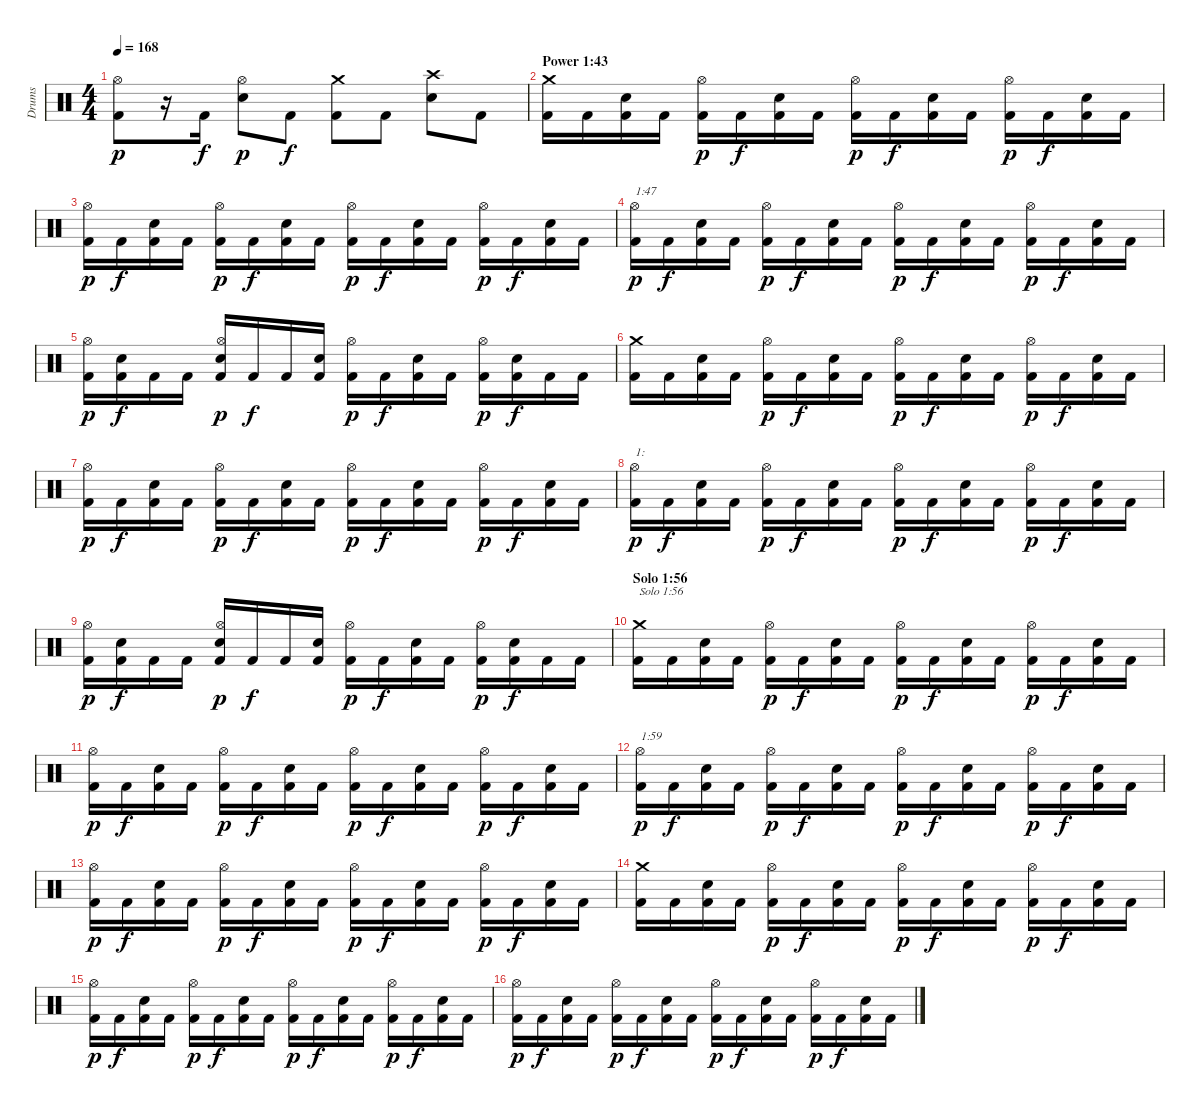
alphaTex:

\track ("Drums" "Drums") {instrument percussion}
\staff {score}
\articulation defaults
\ts (4 4)
\tempo 168
\clef neutral
\ks c
("Kick (hit) 2" "Hi-Hat (open)").8{dy p} r.16 "Kick (hit) 2".16{dy f} ("Electric Snare (hit)" "Hi-Hat (open)").8{dy p} "Kick (hit) 2".8{dy f} ("Kick (hit) 2" "Crash medium (hit)").8 "Kick (hit) 2".8 ("Electric Snare (hit)" "Crash high (hit)").8 "Kick (hit) 2".8 |
\section ("" "Power 1:43")
("Kick (hit) 2" "Crash medium (hit)").16 "Kick (hit) 2".16 ("Kick (hit) 2" "Electric Snare (hit)").16 "Kick (hit) 2".16 ("Kick (hit) 2" "Hi-Hat (open)").16{dy p} "Kick (hit) 2".16{dy f} ("Kick (hit) 2" "Electric Snare (hit)").16 "Kick (hit) 2".16 ("Kick (hit) 2" "Hi-Hat (open)").16{dy p} "Kick (hit) 2".16{dy f} ("Kick (hit) 2" "Electric Snare (hit)").16 "Kick (hit) 2".16 ("Kick (hit) 2" "Hi-Hat (open)").16{dy p} "Kick (hit) 2".16{dy f} ("Kick (hit) 2" "Electric Snare (hit)").16 "Kick (hit) 2".16 |
("Kick (hit) 2" "Hi-Hat (open)").16{dy p} "Kick (hit) 2".16{dy f} ("Kick (hit) 2" "Electric Snare (hit)").16 "Kick (hit) 2".16 ("Kick (hit) 2" "Hi-Hat (open)").16{dy p} "Kick (hit) 2".16{dy f} ("Kick (hit) 2" "Electric Snare (hit)").16 "Kick (hit) 2".16 ("Kick (hit) 2" "Hi-Hat (open)").16{dy p} "Kick (hit) 2".16{dy f} ("Kick (hit) 2" "Electric Snare (hit)").16 "Kick (hit) 2".16 ("Kick (hit) 2" "Hi-Hat (open)").16{dy p} "Kick (hit) 2".16{dy f} ("Kick (hit) 2" "Electric Snare (hit)").16 "Kick (hit) 2".16 |
("Kick (hit) 2" "Hi-Hat (open)").16{txt "1:47" dy p} "Kick (hit) 2".16{dy f} ("Kick (hit) 2" "Electric Snare (hit)").16 "Kick (hit) 2".16 ("Kick (hit) 2" "Hi-Hat (open)").16{dy p} "Kick (hit) 2".16{dy f} ("Kick (hit) 2" "Electric Snare (hit)").16 "Kick (hit) 2".16 ("Kick (hit) 2" "Hi-Hat (open)").16{dy p} "Kick (hit) 2".16{dy f} ("Kick (hit) 2" "Electric Snare (hit)").16 "Kick (hit) 2".16 ("Kick (hit) 2" "Hi-Hat (open)").16{dy p} "Kick (hit) 2".16{dy f} ("Kick (hit) 2" "Electric Snare (hit)").16 "Kick (hit) 2".16 |
("Kick (hit) 2" "Hi-Hat (open)").16{dy p} ("Kick (hit) 2" "Electric Snare (hit)").16{dy f} "Kick (hit) 2".16 "Kick (hit) 2".16 ("Kick (hit) 2" "Electric Snare (hit)" "Hi-Hat (open)").16{dy p} "Kick (hit) 2".16{dy f} "Kick (hit) 2".16 ("Kick (hit) 2" "Electric Snare (hit)").16 ("Kick (hit) 2" "Hi-Hat (open)").16{dy p} "Kick (hit) 2".16{dy f} ("Kick (hit) 2" "Electric Snare (hit)").16 "Kick (hit) 2".16 ("Kick (hit) 2" "Hi-Hat (open)").16{dy p} ("Kick (hit) 2" "Electric Snare (hit)").16{dy f} "Kick (hit) 2".16 "Kick (hit) 2".16 |
("Kick (hit) 2" "Crash medium (hit)").16 "Kick (hit) 2".16 ("Kick (hit) 2" "Electric Snare (hit)").16 "Kick (hit) 2".16 ("Kick (hit) 2" "Hi-Hat (open)").16{dy p} "Kick (hit) 2".16{dy f} ("Kick (hit) 2" "Electric Snare (hit)").16 "Kick (hit) 2".16 ("Kick (hit) 2" "Hi-Hat (open)").16{dy p} "Kick (hit) 2".16{dy f} ("Kick (hit) 2" "Electric Snare (hit)").16 "Kick (hit) 2".16 ("Kick (hit) 2" "Hi-Hat (open)").16{dy p} "Kick (hit) 2".16{dy f} ("Kick (hit) 2" "Electric Snare (hit)").16 "Kick (hit) 2".16 |
("Kick (hit) 2" "Hi-Hat (open)").16{dy p} "Kick (hit) 2".16{dy f} ("Kick (hit) 2" "Electric Snare (hit)").16 "Kick (hit) 2".16 ("Kick (hit) 2" "Hi-Hat (open)").16{dy p} "Kick (hit) 2".16{dy f} ("Kick (hit) 2" "Electric Snare (hit)").16 "Kick (hit) 2".16 ("Kick (hit) 2" "Hi-Hat (open)").16{dy p} "Kick (hit) 2".16{dy f} ("Kick (hit) 2" "Electric Snare (hit)").16 "Kick (hit) 2".16 ("Kick (hit) 2" "Hi-Hat (open)").16{dy p} "Kick (hit) 2".16{dy f} ("Kick (hit) 2" "Electric Snare (hit)").16 "Kick (hit) 2".16 |
("Kick (hit) 2" "Hi-Hat (open)").16{txt "1:" dy p} "Kick (hit) 2".16{dy f} ("Kick (hit) 2" "Electric Snare (hit)").16 "Kick (hit) 2".16 ("Kick (hit) 2" "Hi-Hat (open)").16{dy p} "Kick (hit) 2".16{dy f} ("Kick (hit) 2" "Electric Snare (hit)").16 "Kick (hit) 2".16 ("Kick (hit) 2" "Hi-Hat (open)").16{dy p} "Kick (hit) 2".16{dy f} ("Kick (hit) 2" "Electric Snare (hit)").16 "Kick (hit) 2".16 ("Kick (hit) 2" "Hi-Hat (open)").16{dy p} "Kick (hit) 2".16{dy f} ("Kick (hit) 2" "Electric Snare (hit)").16 "Kick (hit) 2".16 |
("Kick (hit) 2" "Hi-Hat (open)").16{dy p} ("Kick (hit) 2" "Electric Snare (hit)").16{dy f} "Kick (hit) 2".16 "Kick (hit) 2".16 ("Kick (hit) 2" "Electric Snare (hit)" "Hi-Hat (open)").16{dy p} "Kick (hit) 2".16{dy f} "Kick (hit) 2".16 ("Kick (hit) 2" "Electric Snare (hit)").16 ("Kick (hit) 2" "Hi-Hat (open)").16{dy p} "Kick (hit) 2".16{dy f} ("Kick (hit) 2" "Electric Snare (hit)").16 "Kick (hit) 2".16 ("Kick (hit) 2" "Hi-Hat (open)").16{dy p} ("Kick (hit) 2" "Electric Snare (hit)").16{dy f} "Kick (hit) 2".16 "Kick (hit) 2".16 |
\section ("" "Solo 1:56")
("Kick (hit) 2" "Crash medium (hit)").16{txt "Solo 1:56"} "Kick (hit) 2".16 ("Kick (hit) 2" "Electric Snare (hit)").16 "Kick (hit) 2".16 ("Kick (hit) 2" "Hi-Hat (open)").16{dy p} "Kick (hit) 2".16{dy f} ("Kick (hit) 2" "Electric Snare (hit)").16 "Kick (hit) 2".16 ("Kick (hit) 2" "Hi-Hat (open)").16{dy p} "Kick (hit) 2".16{dy f} ("Kick (hit) 2" "Electric Snare (hit)").16 "Kick (hit) 2".16 ("Kick (hit) 2" "Hi-Hat (open)").16{dy p} "Kick (hit) 2".16{dy f} ("Kick (hit) 2" "Electric Snare (hit)").16 "Kick (hit) 2".16 |
("Kick (hit) 2" "Hi-Hat (open)").16{dy p} "Kick (hit) 2".16{dy f} ("Kick (hit) 2" "Electric Snare (hit)").16 "Kick (hit) 2".16 ("Kick (hit) 2" "Hi-Hat (open)").16{dy p} "Kick (hit) 2".16{dy f} ("Kick (hit) 2" "Electric Snare (hit)").16 "Kick (hit) 2".16 ("Kick (hit) 2" "Hi-Hat (open)").16{dy p} "Kick (hit) 2".16{dy f} ("Kick (hit) 2" "Electric Snare (hit)").16 "Kick (hit) 2".16 ("Kick (hit) 2" "Hi-Hat (open)").16{dy p} "Kick (hit) 2".16{dy f} ("Kick (hit) 2" "Electric Snare (hit)").16 "Kick (hit) 2".16 |
("Kick (hit) 2" "Hi-Hat (open)").16{txt "1:59" dy p} "Kick (hit) 2".16{dy f} ("Kick (hit) 2" "Electric Snare (hit)").16 "Kick (hit) 2".16 ("Kick (hit) 2" "Hi-Hat (open)").16{dy p} "Kick (hit) 2".16{dy f} ("Kick (hit) 2" "Electric Snare (hit)").16 "Kick (hit) 2".16 ("Kick (hit) 2" "Hi-Hat (open)").16{dy p} "Kick (hit) 2".16{dy f} ("Kick (hit) 2" "Electric Snare (hit)").16 "Kick (hit) 2".16 ("Kick (hit) 2" "Hi-Hat (open)").16{dy p} "Kick (hit) 2".16{dy f} ("Kick (hit) 2" "Electric Snare (hit)").16 "Kick (hit) 2".16 |
("Kick (hit) 2" "Hi-Hat (open)").16{dy p} "Kick (hit) 2".16{dy f} ("Kick (hit) 2" "Electric Snare (hit)").16 "Kick (hit) 2".16 ("Kick (hit) 2" "Hi-Hat (open)").16{dy p} "Kick (hit) 2".16{dy f} ("Kick (hit) 2" "Electric Snare (hit)").16 "Kick (hit) 2".16 ("Kick (hit) 2" "Hi-Hat (open)").16{dy p} "Kick (hit) 2".16{dy f} ("Kick (hit) 2" "Electric Snare (hit)").16 "Kick (hit) 2".16 ("Kick (hit) 2" "Hi-Hat (open)").16{dy p} "Kick (hit) 2".16{dy f} ("Kick (hit) 2" "Electric Snare (hit)").16 "Kick (hit) 2".16 |
("Kick (hit) 2" "Crash medium (hit)").16 "Kick (hit) 2".16 ("Kick (hit) 2" "Electric Snare (hit)").16 "Kick (hit) 2".16 ("Kick (hit) 2" "Hi-Hat (open)").16{dy p} "Kick (hit) 2".16{dy f} ("Kick (hit) 2" "Electric Snare (hit)").16 "Kick (hit) 2".16 ("Kick (hit) 2" "Hi-Hat (open)").16{dy p} "Kick (hit) 2".16{dy f} ("Kick (hit) 2" "Electric Snare (hit)").16 "Kick (hit) 2".16 ("Kick (hit) 2" "Hi-Hat (open)").16{dy p} "Kick (hit) 2".16{dy f} ("Kick (hit) 2" "Electric Snare (hit)").16 "Kick (hit) 2".16 |
("Kick (hit) 2" "Hi-Hat (open)").16{dy p} "Kick (hit) 2".16{dy f} ("Kick (hit) 2" "Electric Snare (hit)").16 "Kick (hit) 2".16 ("Kick (hit) 2" "Hi-Hat (open)").16{dy p} "Kick (hit) 2".16{dy f} ("Kick (hit) 2" "Electric Snare (hit)").16 "Kick (hit) 2".16 ("Kick (hit) 2" "Hi-Hat (open)").16{dy p} "Kick (hit) 2".16{dy f} ("Kick (hit) 2" "Electric Snare (hit)").16 "Kick (hit) 2".16 ("Kick (hit) 2" "Hi-Hat (open)").16{dy p} "Kick (hit) 2".16{dy f} ("Kick (hit) 2" "Electric Snare (hit)").16 "Kick (hit) 2".16 |
("Kick (hit) 2" "Hi-Hat (open)").16{dy p} "Kick (hit) 2".16{dy f} ("Kick (hit) 2" "Electric Snare (hit)").16 "Kick (hit) 2".16 ("Kick (hit) 2" "Hi-Hat (open)").16{dy p} "Kick (hit) 2".16{dy f} ("Kick (hit) 2" "Electric Snare (hit)").16 "Kick (hit) 2".16 ("Kick (hit) 2" "Hi-Hat (open)").16{dy p} "Kick (hit) 2".16{dy f} ("Kick (hit) 2" "Electric Snare (hit)").16 "Kick (hit) 2".16 ("Kick (hit) 2" "Hi-Hat (open)").16{dy p} "Kick (hit) 2".16{dy f} ("Kick (hit) 2" "Electric Snare (hit)").16 "Kick (hit) 2".16
